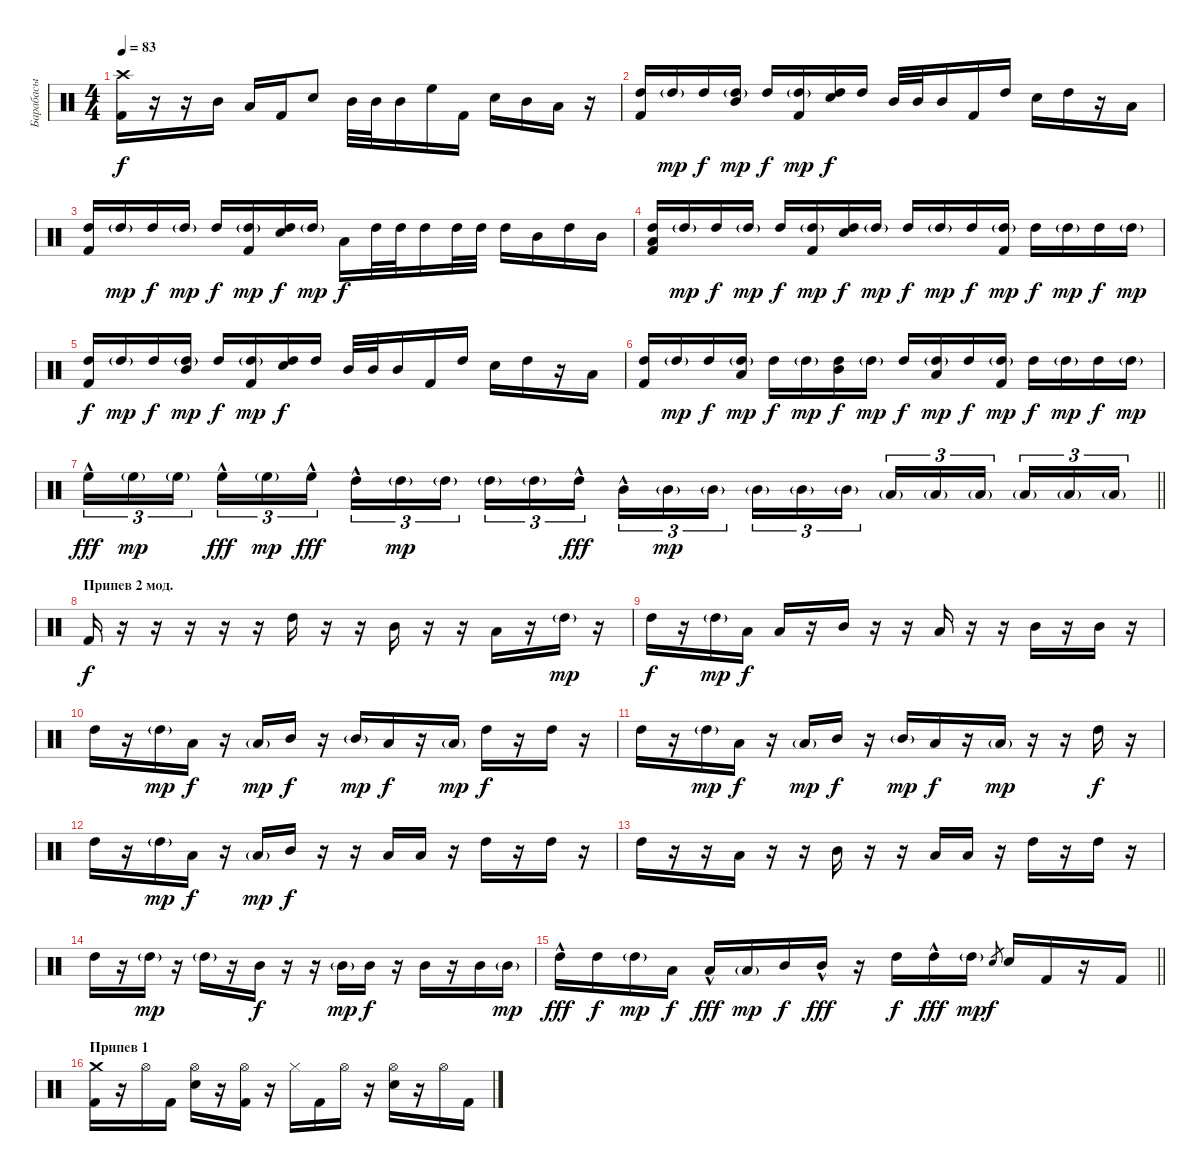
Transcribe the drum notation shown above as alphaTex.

\track ("Барабасы" "Барабасы") {instrument percussion}
\staff {score}
\articulation defaults
\ts (4 4)
\tempo 83
\clef neutral
\ks c
("Kick (hit) 2" "Crash high (hit)").16{dy f} r.16 r.16 "Mid Tom (hit)".16 "Low Tom (hit)".16 "Kick (hit) 2".16 "Electric Snare (hit)".8 "Mid Tom (hit)".32 "Mid Tom (hit)".32 "Mid Tom (hit)".16 "High Floor Tom (hit)".16 "Kick (hit) 2".16 "Electric Snare (hit)".16 "Mid Tom (hit)".16 "Low Tom (hit)".16 r.16 |
("Kick (hit) 2" "High Tom (hit)").16 "High Tom (hit)"{g}.16{dy mp} "High Tom (hit)".16{dy f} ("Mid Tom (hit)" "High Tom (hit)"{g}).16{dy mp} "High Tom (hit)".16{dy f} ("Kick (hit) 2" "High Tom (hit)"{g}).16{dy mp} ("Electric Snare (hit)" "High Tom (hit)").16{dy f} "High Tom (hit)".16 "Mid Tom (hit)".32 "Mid Tom (hit)".32 "Mid Tom (hit)".16 "Kick (hit) 2".16 "High Tom (hit)".16 "Electric Snare (hit)".16 "High Tom (hit)".16 r.16 "Low Tom (hit)".16 |
("Kick (hit) 2" "High Tom (hit)").16 "High Tom (hit)"{g}.16{dy mp} "High Tom (hit)".16{dy f} "High Tom (hit)"{g}.16{dy mp} "High Tom (hit)".16{dy f} ("Kick (hit) 2" "High Tom (hit)"{g}).16{dy mp} ("Electric Snare (hit)" "High Tom (hit)").16{dy f} "High Tom (hit)"{g}.16{dy mp} "Low Tom (hit)".16{dy f} "High Tom (hit)".32 "High Tom (hit)".32 "High Tom (hit)".16 "High Tom (hit)".32 "High Tom (hit)".32 "High Tom (hit)".16 "Mid Tom (hit)".16 "High Tom (hit)".16 "Mid Tom (hit)".16 |
("Kick (hit) 2" "Low Tom (hit)" "High Tom (hit)").16 "High Tom (hit)"{g}.16{dy mp} "High Tom (hit)".16{dy f} "High Tom (hit)"{g}.16{dy mp} "High Tom (hit)".16{dy f} ("Kick (hit) 2" "High Tom (hit)"{g}).16{dy mp} ("Electric Snare (hit)" "High Tom (hit)").16{dy f} "High Tom (hit)"{g}.16{dy mp} "High Tom (hit)".16{dy f} "High Tom (hit)"{g}.16{dy mp} "High Tom (hit)".16{dy f} ("Kick (hit) 2" "High Tom (hit)"{g}).16{dy mp} "High Tom (hit)".16{dy f} "High Tom (hit)"{g}.16{dy mp} "High Tom (hit)".16{dy f} "High Tom (hit)"{g}.16{dy mp} |
("Kick (hit) 2" "High Tom (hit)").16{dy f} "High Tom (hit)"{g}.16{dy mp} "High Tom (hit)".16{dy f} ("Mid Tom (hit)" "High Tom (hit)"{g}).16{dy mp} "High Tom (hit)".16{dy f} ("Kick (hit) 2" "High Tom (hit)"{g}).16{dy mp} ("Electric Snare (hit)" "High Tom (hit)").16{dy f} "High Tom (hit)".16 "Mid Tom (hit)".32 "Mid Tom (hit)".32 "Mid Tom (hit)".16 "Kick (hit) 2".16 "High Tom (hit)".16 "Electric Snare (hit)".16 "High Tom (hit)".16 r.16 "Low Tom (hit)".16 |
("Kick (hit) 2" "High Tom (hit)").16 "High Tom (hit)"{g}.16{dy mp} "High Tom (hit)".16{dy f} ("High Tom (hit)"{g} "Low Tom (hit)").16{dy mp} "High Tom (hit)".16{dy f} "High Tom (hit)"{g}.16{dy mp} ("Mid Tom (hit)" "High Tom (hit)").16{dy f} "High Tom (hit)"{g}.16{dy mp} "High Tom (hit)".16{dy f} ("High Tom (hit)"{g} "Low Tom (hit)").16{dy mp} "High Tom (hit)".16{dy f} ("Kick (hit) 2" "High Tom (hit)"{g}).16{dy mp} "High Tom (hit)".16{dy f} "High Tom (hit)"{g}.16{dy mp} "High Tom (hit)".16{dy f} "High Tom (hit)"{g}.16{dy mp} |
\barLineRight lightlight "High Floor Tom (hit)"{hac}.16{tu (3 2) dy fff} "High Floor Tom (hit)"{g}.16{tu (3 2) dy mp} "High Floor Tom (hit)"{g}.16{tu (3 2) beam splitsecondary} "High Floor Tom (hit)"{hac}.16{tu (3 2) dy fff} "High Floor Tom (hit)"{g}.16{tu (3 2) dy mp} "High Floor Tom (hit)"{hac}.16{tu (3 2) dy fff} "High Tom (hit)"{hac}.16{tu (3 2)} "High Tom (hit)"{g}.16{tu (3 2) dy mp} "High Tom (hit)"{g}.16{tu (3 2) beam splitsecondary} "High Tom (hit)"{g}.16{tu (3 2)} "High Tom (hit)"{g}.16{tu (3 2)} "High Tom (hit)"{hac}.16{tu (3 2) dy fff} "Mid Tom (hit)"{hac}.16{tu (3 2)} "Mid Tom (hit)"{g}.16{tu (3 2) dy mp} "Mid Tom (hit)"{g}.16{tu (3 2) beam splitsecondary} "Mid Tom (hit)"{g}.16{tu (3 2)} "Mid Tom (hit)"{g}.16{tu (3 2)} "Mid Tom (hit)"{g}.16{tu (3 2)} "Low Tom (hit)"{g}.16{tu (3 2)} "Low Tom (hit)"{g}.16{tu (3 2)} "Low Tom (hit)"{g}.16{tu (3 2) beam splitsecondary} "Low Tom (hit)"{g}.16{tu (3 2)} "Low Tom (hit)"{g}.16{tu (3 2)} "Low Tom (hit)"{g}.16{tu (3 2)}
|
\section ("" "Припев 2 мод.")
"Kick (hit) 2".16{dy f} r.16 r.16 r.16 r.16 r.16 "High Tom (hit)".16 r.16 r.16 "Mid Tom (hit)".16 r.16 r.16 "Low Tom (hit)".16 r.16 "High Tom (hit)"{g}.16{dy mp} r.16 |
"High Tom (hit)".16{dy f} r.16 "High Tom (hit)"{g}.16{dy mp} "Low Tom (hit)".16{dy f} "Low Tom (hit)".16 r.16 "Mid Tom (hit)".16 r.16 r.16 "Low Tom (hit)".16 r.16 r.16 "Mid Tom (hit)".16 r.16 "Mid Tom (hit)".16 r.16 |
"High Tom (hit)".16 r.16 "High Tom (hit)"{g}.16{dy mp} "Low Tom (hit)".16{dy f} r.16 "Low Tom (hit)"{g}.16{dy mp} "Mid Tom (hit)".16{dy f} r.16 "Mid Tom (hit)"{g}.16{dy mp} "Low Tom (hit)".16{dy f} r.16 "Low Tom (hit)"{g}.16{dy mp} "High Tom (hit)".16{dy f} r.16 "High Tom (hit)".16 r.16 |
"High Tom (hit)".16 r.16 "High Tom (hit)"{g}.16{dy mp} "Low Tom (hit)".16{dy f} r.16 "Low Tom (hit)"{g}.16{dy mp} "Mid Tom (hit)".16{dy f} r.16 "Mid Tom (hit)"{g}.16{dy mp} "Low Tom (hit)".16{dy f} r.16 "Low Tom (hit)"{g}.16{dy mp} r.16 r.16 "High Tom (hit)".16{dy f} r.16 |
"High Tom (hit)".16 r.16 "High Tom (hit)"{g}.16{dy mp} "Low Tom (hit)".16{dy f} r.16 "Low Tom (hit)"{g}.16{dy mp} "Mid Tom (hit)".16{dy f} r.16 r.16 "Low Tom (hit)".16 "Low Tom (hit)".16 r.16 "High Tom (hit)".16 r.16 "High Tom (hit)".16 r.16 |
"High Tom (hit)".16 r.16 r.16 "Low Tom (hit)".16 r.16 r.16 "Mid Tom (hit)".16 r.16 r.16 "Low Tom (hit)".16 "Low Tom (hit)".16 r.16 "High Tom (hit)".16 r.16 "High Tom (hit)".16 r.16 |
"High Tom (hit)".16 r.16 "High Tom (hit)"{g}.16{dy mp} r.16 "High Tom (hit)"{g}.16 r.16 "Mid Tom (hit)".16{dy f} r.16 r.16 "Mid Tom (hit)"{g}.16{dy mp} "Mid Tom (hit)".16{dy f} r.16 "Mid Tom (hit)".16 r.16 "Mid Tom (hit)".16 "Mid Tom (hit)"{g}.16{dy mp} |
\barLineRight lightlight "High Tom (hit)"{hac}.16{dy fff balance 1} "High Tom (hit)".16{dy f balance 1} "High Tom (hit)"{g}.16{dy mp} "Low Tom (hit)".16{dy f balance 16} "Low Tom (hit)"{hac}.16{dy fff balance 16} "Low Tom (hit)"{g}.16{dy mp} "Mid Tom (hit)".16{dy f balance 8} "Mid Tom (hit)"{hac}.16{dy fff}
r.16 "High Tom (hit)".16{dy f} "High Tom (hit)"{hac}.16{dy fff} "High Tom (hit)"{g}.16{dy mp} "Electric Snare (hit)".8{gr dy f} "Electric Snare (hit)".16 "Kick (hit) 2".16 r.16 "Kick (hit) 2".16 |
\section ("" "Припев 1")
("Crash medium (hit)" "Kick (hit) 2").16 r.16 "Hi-Hat (open)".16 "Kick (hit) 2".16 ("Electric Snare (hit)" "Hi-Hat (open)").16 r.16 ("Hi-Hat (open)" "Kick (hit) 2").16 r.16 "Hi-Hat (closed)".16 "Kick (hit) 2".16 "Hi-Hat (open)".16 r.16 ("Electric Snare (hit)" "Hi-Hat (open)").16 r.16 "Hi-Hat (open)".16 "Kick (hit) 2".16
